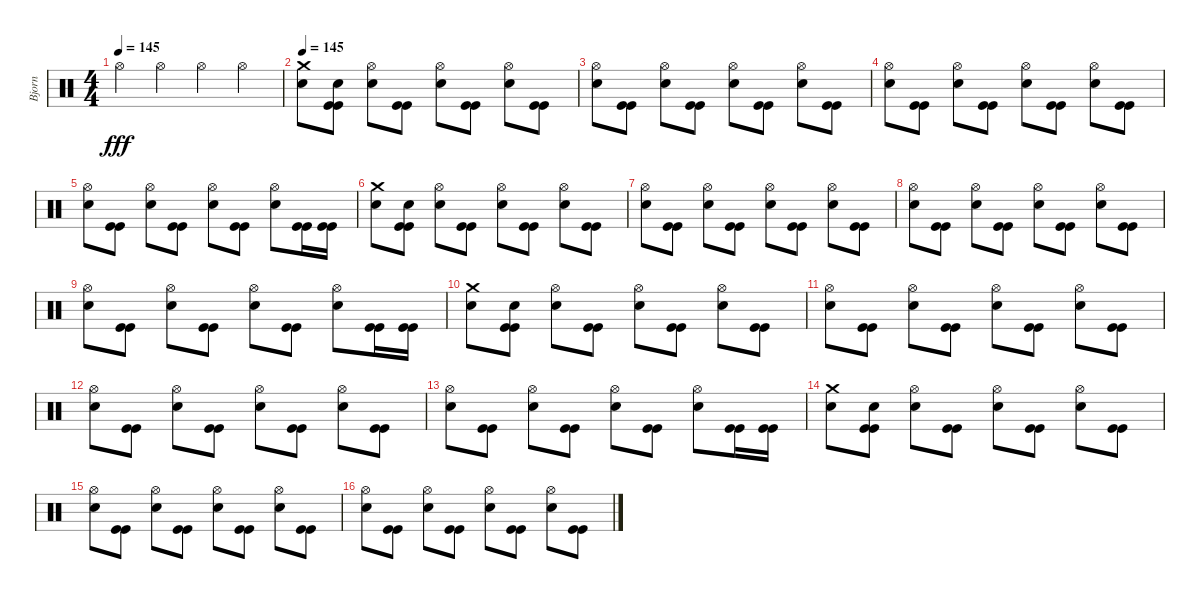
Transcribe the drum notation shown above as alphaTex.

\track ("Bjorn" "Bjorn") {instrument percussion}
\staff {score}
\articulation defaults
\ts (4 4)
\tempo 145
\tempo 148
\tempo 145
\clef neutral
\ks c "Hi-Hat (open)".4{dy fff} "Hi-Hat (open)".4 "Hi-Hat (open)".4 "Hi-Hat (open)".4
|
\tempo 145
("Snare (hit) 2" "Crash medium (hit)").8 ("Kick (hit)" "Kick (hit)" "Snare (hit)").8 ("Snare (hit) 2" "Hi-Hat (open)").8 ("Kick (hit)" "Kick (hit)").8 ("Snare (hit) 2" "Hi-Hat (open)").8 ("Kick (hit)" "Kick (hit)").8 ("Snare (hit) 2" "Hi-Hat (open)").8 ("Kick (hit)" "Kick (hit)").8 |
("Snare (hit) 2" "Hi-Hat (open)").8 ("Kick (hit)" "Kick (hit)").8 ("Snare (hit) 2" "Hi-Hat (open)").8 ("Kick (hit)" "Kick (hit)").8 ("Snare (hit) 2" "Hi-Hat (open)").8 ("Kick (hit)" "Kick (hit)").8 ("Snare (hit) 2" "Hi-Hat (open)").8 ("Kick (hit)" "Kick (hit)").8 |
("Snare (hit) 2" "Hi-Hat (open)").8 ("Kick (hit)" "Kick (hit)").8 ("Snare (hit) 2" "Hi-Hat (open)").8 ("Kick (hit)" "Kick (hit)").8 ("Snare (hit) 2" "Hi-Hat (open)").8 ("Kick (hit)" "Kick (hit)").8 ("Snare (hit) 2" "Hi-Hat (open)").8 ("Kick (hit)" "Kick (hit)").8 |
("Snare (hit) 2" "Hi-Hat (open)").8 ("Kick (hit)" "Kick (hit)").8 ("Snare (hit) 2" "Hi-Hat (open)").8 ("Kick (hit)" "Kick (hit)").8 ("Snare (hit) 2" "Hi-Hat (open)").8 ("Kick (hit)" "Kick (hit)").8 ("Snare (hit) 2" "Hi-Hat (open)").8 ("Kick (hit)" "Kick (hit)").16 ("Kick (hit)" "Kick (hit)").16 |
("Snare (hit) 2" "Crash medium (hit)").8 ("Kick (hit)" "Kick (hit)" "Snare (hit)").8 ("Snare (hit) 2" "Hi-Hat (open)").8 ("Kick (hit)" "Kick (hit)").8 ("Snare (hit) 2" "Hi-Hat (open)").8 ("Kick (hit)" "Kick (hit)").8 ("Snare (hit) 2" "Hi-Hat (open)").8 ("Kick (hit)" "Kick (hit)").8 |
("Snare (hit) 2" "Hi-Hat (open)").8 ("Kick (hit)" "Kick (hit)").8 ("Snare (hit) 2" "Hi-Hat (open)").8 ("Kick (hit)" "Kick (hit)").8 ("Snare (hit) 2" "Hi-Hat (open)").8 ("Kick (hit)" "Kick (hit)").8 ("Snare (hit) 2" "Hi-Hat (open)").8 ("Kick (hit)" "Kick (hit)").8 |
("Snare (hit) 2" "Hi-Hat (open)").8 ("Kick (hit)" "Kick (hit)").8 ("Snare (hit) 2" "Hi-Hat (open)").8 ("Kick (hit)" "Kick (hit)").8 ("Snare (hit) 2" "Hi-Hat (open)").8 ("Kick (hit)" "Kick (hit)").8 ("Snare (hit) 2" "Hi-Hat (open)").8 ("Kick (hit)" "Kick (hit)").8 |
("Snare (hit) 2" "Hi-Hat (open)").8 ("Kick (hit)" "Kick (hit)").8 ("Snare (hit) 2" "Hi-Hat (open)").8 ("Kick (hit)" "Kick (hit)").8 ("Snare (hit) 2" "Hi-Hat (open)").8 ("Kick (hit)" "Kick (hit)").8 ("Snare (hit) 2" "Hi-Hat (open)").8 ("Kick (hit)" "Kick (hit)").16 ("Kick (hit)" "Kick (hit)").16 |
("Snare (hit) 2" "Crash medium (hit)").8 ("Kick (hit)" "Kick (hit)" "Snare (hit)").8 ("Snare (hit) 2" "Hi-Hat (open)").8 ("Kick (hit)" "Kick (hit)").8 ("Snare (hit) 2" "Hi-Hat (open)").8 ("Kick (hit)" "Kick (hit)").8 ("Snare (hit) 2" "Hi-Hat (open)").8 ("Kick (hit)" "Kick (hit)").8 |
("Snare (hit) 2" "Hi-Hat (open)").8 ("Kick (hit)" "Kick (hit)").8 ("Snare (hit) 2" "Hi-Hat (open)").8 ("Kick (hit)" "Kick (hit)").8 ("Snare (hit) 2" "Hi-Hat (open)").8 ("Kick (hit)" "Kick (hit)").8 ("Snare (hit) 2" "Hi-Hat (open)").8 ("Kick (hit)" "Kick (hit)").8 |
("Snare (hit) 2" "Hi-Hat (open)").8 ("Kick (hit)" "Kick (hit)").8 ("Snare (hit) 2" "Hi-Hat (open)").8 ("Kick (hit)" "Kick (hit)").8 ("Snare (hit) 2" "Hi-Hat (open)").8 ("Kick (hit)" "Kick (hit)").8 ("Snare (hit) 2" "Hi-Hat (open)").8 ("Kick (hit)" "Kick (hit)").8 |
("Snare (hit) 2" "Hi-Hat (open)").8 ("Kick (hit)" "Kick (hit)").8 ("Snare (hit) 2" "Hi-Hat (open)").8 ("Kick (hit)" "Kick (hit)").8 ("Snare (hit) 2" "Hi-Hat (open)").8 ("Kick (hit)" "Kick (hit)").8 ("Snare (hit) 2" "Hi-Hat (open)").8 ("Kick (hit)" "Kick (hit)").16 ("Kick (hit)" "Kick (hit)").16 |
("Snare (hit) 2" "Crash medium (hit)").8 ("Kick (hit)" "Kick (hit)" "Snare (hit)").8 ("Snare (hit) 2" "Hi-Hat (open)").8 ("Kick (hit)" "Kick (hit)").8 ("Snare (hit) 2" "Hi-Hat (open)").8 ("Kick (hit)" "Kick (hit)").8 ("Snare (hit) 2" "Hi-Hat (open)").8 ("Kick (hit)" "Kick (hit)").8 |
("Snare (hit) 2" "Hi-Hat (open)").8 ("Kick (hit)" "Kick (hit)").8 ("Snare (hit) 2" "Hi-Hat (open)").8 ("Kick (hit)" "Kick (hit)").8 ("Snare (hit) 2" "Hi-Hat (open)").8 ("Kick (hit)" "Kick (hit)").8 ("Snare (hit) 2" "Hi-Hat (open)").8 ("Kick (hit)" "Kick (hit)").8 |
("Snare (hit) 2" "Hi-Hat (open)").8 ("Kick (hit)" "Kick (hit)").8 ("Snare (hit) 2" "Hi-Hat (open)").8 ("Kick (hit)" "Kick (hit)").8 ("Snare (hit) 2" "Hi-Hat (open)").8 ("Kick (hit)" "Kick (hit)").8 ("Snare (hit) 2" "Hi-Hat (open)").8 ("Kick (hit)" "Kick (hit)").8
